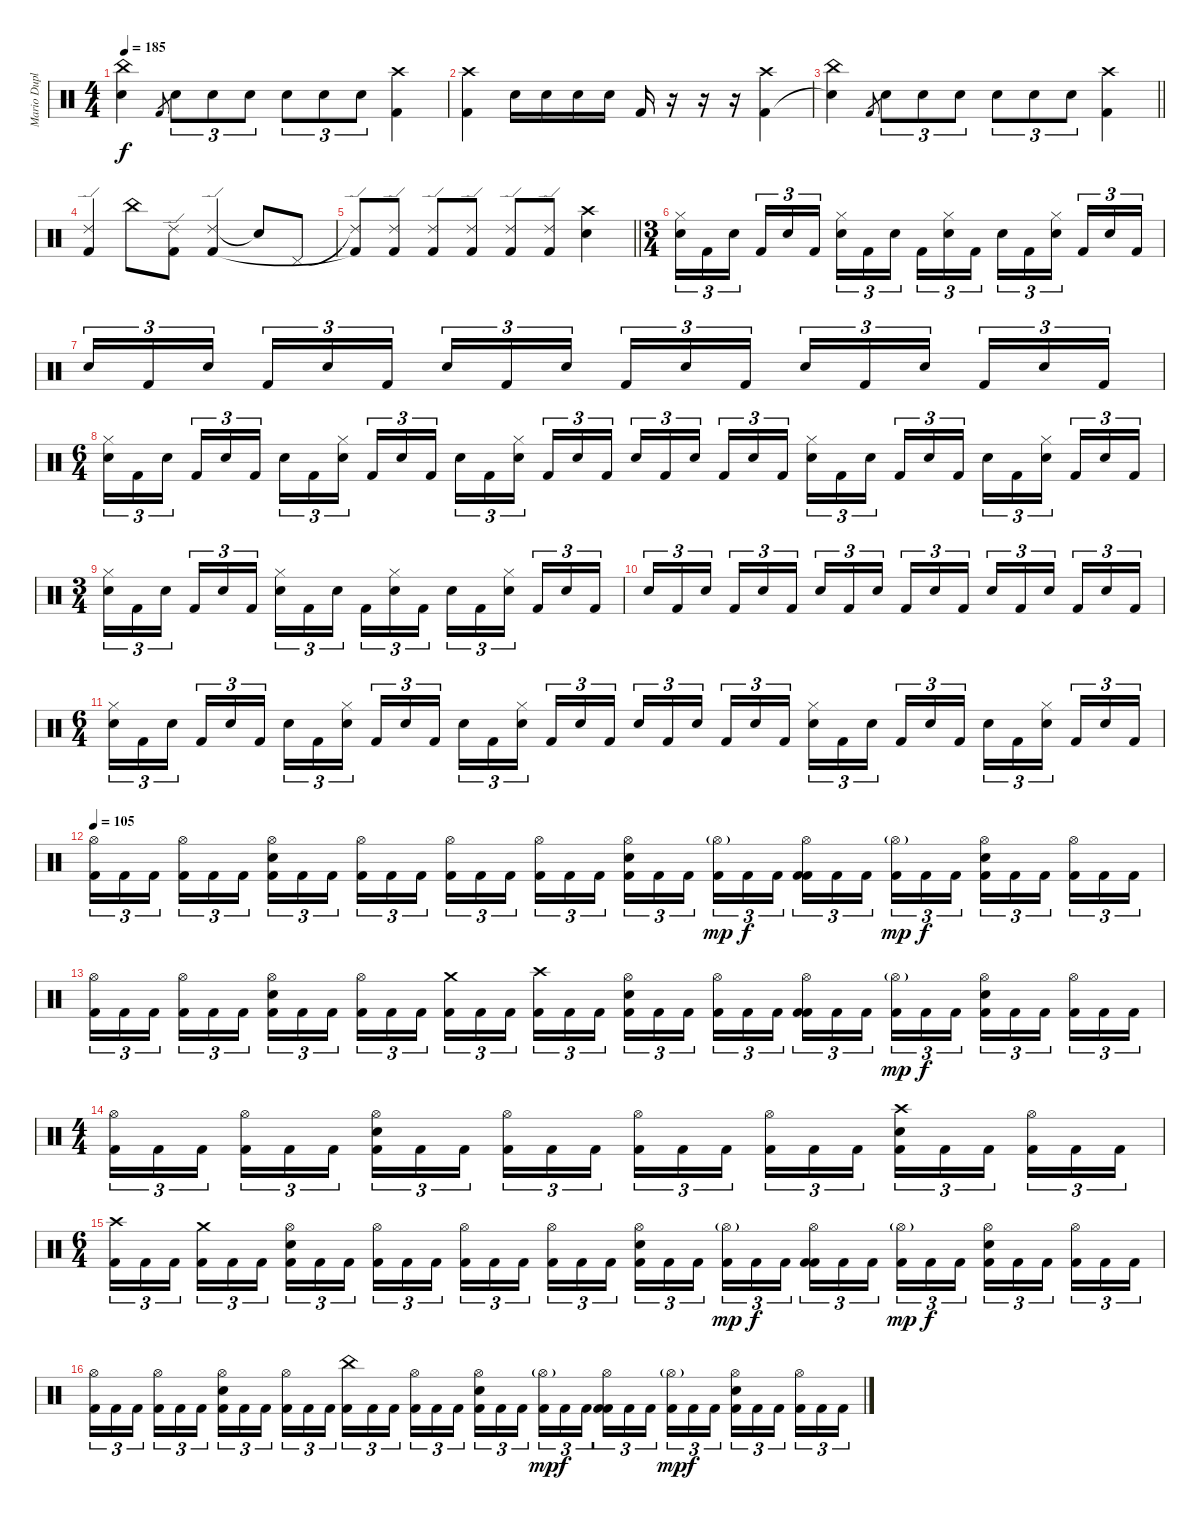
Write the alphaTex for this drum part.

\track ("Mario Duplantier" "Mario Dupl") {instrument percussion}
\staff {score}
\articulation defaults
\ts (4 4)
\tempo 185
\clef neutral
\ks c
("China (hit)" "Snare (hit)"{t}).4{dy f} "Kick (hit) 2".8{gr} "Electric Snare (hit)".8{tu (3 2)} "Electric Snare (hit)".8{tu (3 2)} "Electric Snare (hit)".8{tu (3 2)} "Electric Snare (hit)".8{tu (3 2)} "Electric Snare (hit)".8{tu (3 2)} "Electric Snare (hit)".8{tu (3 2)} ("Crash high (hit)" "Kick (hit) 2").4 |
("Crash high (hit)" "Kick (hit) 2").4 "Electric Snare (hit)".16 "Electric Snare (hit)".16 "Electric Snare (hit)".16 "Electric Snare (hit)".16 "Kick (hit) 2".16 r.16 r.16 r.16 ("Crash high (hit)" "Kick (hit) 2").4 |
\barLineRight lightlight
("China (hit)" "Snare (hit)"{t}).4 "Kick (hit) 2".8{gr} "Electric Snare (hit)".8{tu (3 2)} "Electric Snare (hit)".8{tu (3 2)} "Electric Snare (hit)".8{tu (3 2)} "Electric Snare (hit)".8{tu (3 2)} "Electric Snare (hit)".8{tu (3 2)} "Electric Snare (hit)".8{tu (3 2)} ("Crash high (hit)" "Kick (hit) 2").4 |
("Ride (edge) 2" "Kick (hit) 2").4 "China (hit)".8 ("Ride (edge) 2" "Kick (hit) 2").8 ("Ride (edge) 2" "Kick (hit) 2").4 "Snare (hit)"{t}.8 "Pedal Hi-Hat (hit)".8 |
\barLineRight lightlight
("Ride (edge) 2"{t} "Kick (hit) 2"{t}).8 ("Ride (edge) 2" "Kick (hit) 2").8 ("Ride (edge) 2" "Kick (hit) 2").8 ("Ride (edge) 2" "Kick (hit) 2").8 ("Ride (edge) 2" "Kick (hit) 2").8 ("Ride (edge) 2" "Kick (hit) 2").8 ("Crash high (hit)" "Electric Snare (hit)").4 |
\ts (3 4)
("Hi-Hat (closed)" "Electric Snare (hit)").16{tu (3 2)} "Kick (hit) 2".16{tu (3 2)} "Electric Snare (hit)".16{tu (3 2) beam splitsecondary} "Kick (hit) 2".16{tu (3 2)} "Electric Snare (hit)".16{tu (3 2)} "Kick (hit) 2".16{tu (3 2)} ("Hi-Hat (closed)" "Electric Snare (hit)").16{tu (3 2)} "Kick (hit) 2".16{tu (3 2)} "Electric Snare (hit)".16{tu (3 2) beam splitsecondary} "Kick (hit) 2".16{tu (3 2)} ("Hi-Hat (closed)" "Electric Snare (hit)").16{tu (3 2)} "Kick (hit) 2".16{tu (3 2)} "Electric Snare (hit)".16{tu (3 2)} "Kick (hit) 2".16{tu (3 2)} ("Hi-Hat (closed)" "Electric Snare (hit)").16{tu (3 2) beam splitsecondary} "Kick (hit) 2".16{tu (3 2)} "Electric Snare (hit)".16{tu (3 2)} "Kick (hit) 2".16{tu (3 2)} |
"Electric Snare (hit)".16{tu (3 2)} "Kick (hit) 2".16{tu (3 2)} "Electric Snare (hit)".16{tu (3 2) beam splitsecondary} "Kick (hit) 2".16{tu (3 2)} "Electric Snare (hit)".16{tu (3 2)} "Kick (hit) 2".16{tu (3 2)} "Electric Snare (hit)".16{tu (3 2)} "Kick (hit) 2".16{tu (3 2)} "Electric Snare (hit)".16{tu (3 2) beam splitsecondary} "Kick (hit) 2".16{tu (3 2)} "Electric Snare (hit)".16{tu (3 2)} "Kick (hit) 2".16{tu (3 2)} "Electric Snare (hit)".16{tu (3 2)} "Kick (hit) 2".16{tu (3 2)} "Electric Snare (hit)".16{tu (3 2) beam splitsecondary} "Kick (hit) 2".16{tu (3 2)} "Electric Snare (hit)".16{tu (3 2)} "Kick (hit) 2".16{tu (3 2)} |
\ts (6 4)
("Hi-Hat (closed)" "Electric Snare (hit)").16{tu (3 2)} "Kick (hit) 2".16{tu (3 2)} "Electric Snare (hit)".16{tu (3 2) beam splitsecondary} "Kick (hit) 2".16{tu (3 2)} "Electric Snare (hit)".16{tu (3 2)} "Kick (hit) 2".16{tu (3 2) beam splitsecondary} "Electric Snare (hit)".16{tu (3 2)} "Kick (hit) 2".16{tu (3 2)} ("Hi-Hat (closed)" "Electric Snare (hit)").16{tu (3 2) beam splitsecondary} "Kick (hit) 2".16{tu (3 2)} "Electric Snare (hit)".16{tu (3 2)} "Kick (hit) 2".16{tu (3 2) beam splitsecondary} "Electric Snare (hit)".16{tu (3 2)} "Kick (hit) 2".16{tu (3 2)} ("Hi-Hat (closed)" "Electric Snare (hit)").16{tu (3 2) beam splitsecondary} "Kick (hit) 2".16{tu (3 2)} "Electric Snare (hit)".16{tu (3 2)} "Kick (hit) 2".16{tu (3 2)} "Electric Snare (hit)".16{tu (3 2)} "Kick (hit) 2".16{tu (3 2)} "Electric Snare (hit)".16{tu (3 2) beam splitsecondary} "Kick (hit) 2".16{tu (3 2)} "Electric Snare (hit)".16{tu (3 2)} "Kick (hit) 2".16{tu (3 2) beam splitsecondary} ("Hi-Hat (closed)" "Electric Snare (hit)").16{tu (3 2)} "Kick (hit) 2".16{tu (3 2)} "Electric Snare (hit)".16{tu (3 2) beam splitsecondary} "Kick (hit) 2".16{tu (3 2)} "Electric Snare (hit)".16{tu (3 2)} "Kick (hit) 2".16{tu (3 2) beam splitsecondary} "Electric Snare (hit)".16{tu (3 2)} "Kick (hit) 2".16{tu (3 2)} ("Hi-Hat (closed)" "Electric Snare (hit)").16{tu (3 2) beam splitsecondary} "Kick (hit) 2".16{tu (3 2)} "Electric Snare (hit)".16{tu (3 2)} "Kick (hit) 2".16{tu (3 2)} |
\ts (3 4)
("Hi-Hat (closed)" "Electric Snare (hit)").16{tu (3 2)} "Kick (hit) 2".16{tu (3 2)} "Electric Snare (hit)".16{tu (3 2) beam splitsecondary} "Kick (hit) 2".16{tu (3 2)} "Electric Snare (hit)".16{tu (3 2)} "Kick (hit) 2".16{tu (3 2)} ("Hi-Hat (closed)" "Electric Snare (hit)").16{tu (3 2)} "Kick (hit) 2".16{tu (3 2)} "Electric Snare (hit)".16{tu (3 2) beam splitsecondary} "Kick (hit) 2".16{tu (3 2)} ("Hi-Hat (closed)" "Electric Snare (hit)").16{tu (3 2)} "Kick (hit) 2".16{tu (3 2)} "Electric Snare (hit)".16{tu (3 2)} "Kick (hit) 2".16{tu (3 2)} ("Hi-Hat (closed)" "Electric Snare (hit)").16{tu (3 2) beam splitsecondary} "Kick (hit) 2".16{tu (3 2)} "Electric Snare (hit)".16{tu (3 2)} "Kick (hit) 2".16{tu (3 2)} |
"Electric Snare (hit)".16{tu (3 2)} "Kick (hit) 2".16{tu (3 2)} "Electric Snare (hit)".16{tu (3 2) beam splitsecondary} "Kick (hit) 2".16{tu (3 2)} "Electric Snare (hit)".16{tu (3 2)} "Kick (hit) 2".16{tu (3 2)} "Electric Snare (hit)".16{tu (3 2)} "Kick (hit) 2".16{tu (3 2)} "Electric Snare (hit)".16{tu (3 2) beam splitsecondary} "Kick (hit) 2".16{tu (3 2)} "Electric Snare (hit)".16{tu (3 2)} "Kick (hit) 2".16{tu (3 2)} "Electric Snare (hit)".16{tu (3 2)} "Kick (hit) 2".16{tu (3 2)} "Electric Snare (hit)".16{tu (3 2) beam splitsecondary} "Kick (hit) 2".16{tu (3 2)} "Electric Snare (hit)".16{tu (3 2)} "Kick (hit) 2".16{tu (3 2)} |
\ts (6 4)
("Hi-Hat (closed)" "Electric Snare (hit)").16{tu (3 2)} "Kick (hit) 2".16{tu (3 2)} "Electric Snare (hit)".16{tu (3 2) beam splitsecondary} "Kick (hit) 2".16{tu (3 2)} "Electric Snare (hit)".16{tu (3 2)} "Kick (hit) 2".16{tu (3 2) beam splitsecondary} "Electric Snare (hit)".16{tu (3 2)} "Kick (hit) 2".16{tu (3 2)} ("Hi-Hat (closed)" "Electric Snare (hit)").16{tu (3 2) beam splitsecondary} "Kick (hit) 2".16{tu (3 2)} "Electric Snare (hit)".16{tu (3 2)} "Kick (hit) 2".16{tu (3 2) beam splitsecondary} "Electric Snare (hit)".16{tu (3 2)} "Kick (hit) 2".16{tu (3 2)} ("Hi-Hat (closed)" "Electric Snare (hit)").16{tu (3 2) beam splitsecondary} "Kick (hit) 2".16{tu (3 2)} "Electric Snare (hit)".16{tu (3 2)} "Kick (hit) 2".16{tu (3 2)} "Electric Snare (hit)".16{tu (3 2)} "Kick (hit) 2".16{tu (3 2)} "Electric Snare (hit)".16{tu (3 2) beam splitsecondary} "Kick (hit) 2".16{tu (3 2)} "Electric Snare (hit)".16{tu (3 2)} "Kick (hit) 2".16{tu (3 2) beam splitsecondary} ("Hi-Hat (closed)" "Electric Snare (hit)").16{tu (3 2)} "Kick (hit) 2".16{tu (3 2)} "Electric Snare (hit)".16{tu (3 2) beam splitsecondary} "Kick (hit) 2".16{tu (3 2)} "Electric Snare (hit)".16{tu (3 2)} "Kick (hit) 2".16{tu (3 2) beam splitsecondary} "Electric Snare (hit)".16{tu (3 2)} "Kick (hit) 2".16{tu (3 2)} ("Hi-Hat (closed)" "Electric Snare (hit)").16{tu (3 2) beam splitsecondary} "Kick (hit) 2".16{tu (3 2)} "Electric Snare (hit)".16{tu (3 2)} "Kick (hit) 2".16{tu (3 2)} |
\tempo 105
("Hi-Hat (open)" "Kick (hit) 2").16{tu (3 2)} "Kick (hit) 2".16{tu (3 2)} "Kick (hit) 2".16{tu (3 2) beam splitsecondary} ("Hi-Hat (open)" "Kick (hit) 2").16{tu (3 2)} "Kick (hit) 2".16{tu (3 2)} "Kick (hit) 2".16{tu (3 2) beam splitsecondary} ("Hi-Hat (open)" "Electric Snare (hit)" "Kick (hit) 2").16{tu (3 2)} "Kick (hit) 2".16{tu (3 2)} "Kick (hit) 2".16{tu (3 2) beam splitsecondary} ("Hi-Hat (open)" "Kick (hit) 2").16{tu (3 2)} "Kick (hit) 2".16{tu (3 2)} "Kick (hit) 2".16{tu (3 2) beam splitsecondary} ("Hi-Hat (open)" "Kick (hit) 2").16{tu (3 2)} "Kick (hit) 2".16{tu (3 2)} "Kick (hit) 2".16{tu (3 2) beam splitsecondary} ("Hi-Hat (open)" "Kick (hit) 2").16{tu (3 2)} "Kick (hit) 2".16{tu (3 2)} "Kick (hit) 2".16{tu (3 2)} ("Hi-Hat (open)" "Electric Snare (hit)" "Kick (hit) 2").16{tu (3 2)} "Kick (hit) 2".16{tu (3 2)} "Kick (hit) 2".16{tu (3 2) beam splitsecondary} ("Hi-Hat (open)"{g} "Kick (hit) 2").16{tu (3 2) dy mp} "Kick (hit) 2".16{tu (3 2) dy f} "Kick (hit) 2".16{tu (3 2) beam splitsecondary} ("Hi-Hat (open)" "Kick (hit) 2" "Kick (hit) 2").16{tu (3 2)} "Kick (hit) 2".16{tu (3 2)} "Kick (hit) 2".16{tu (3 2) beam splitsecondary} ("Hi-Hat (open)"{g} "Kick (hit) 2").16{tu (3 2) dy mp} "Kick (hit) 2".16{tu (3 2) dy f} "Kick (hit) 2".16{tu (3 2) beam splitsecondary} ("Hi-Hat (open)" "Electric Snare (hit)" "Kick (hit) 2").16{tu (3 2)} "Kick (hit) 2".16{tu (3 2)} "Kick (hit) 2".16{tu (3 2) beam splitsecondary} ("Hi-Hat (open)" "Kick (hit) 2").16{tu (3 2)} "Kick (hit) 2".16{tu (3 2)} "Kick (hit) 2".16{tu (3 2)} |
("Hi-Hat (open)" "Kick (hit) 2").16{tu (3 2)} "Kick (hit) 2".16{tu (3 2)} "Kick (hit) 2".16{tu (3 2) beam splitsecondary} ("Hi-Hat (open)" "Kick (hit) 2").16{tu (3 2)} "Kick (hit) 2".16{tu (3 2)} "Kick (hit) 2".16{tu (3 2) beam splitsecondary} ("Hi-Hat (open)" "Electric Snare (hit)" "Kick (hit) 2").16{tu (3 2)} "Kick (hit) 2".16{tu (3 2)} "Kick (hit) 2".16{tu (3 2) beam splitsecondary} ("Hi-Hat (open)" "Kick (hit) 2").16{tu (3 2)} "Kick (hit) 2".16{tu (3 2)} "Kick (hit) 2".16{tu (3 2) beam splitsecondary} ("Crash medium (hit)" "Kick (hit) 2").16{tu (3 2)} "Kick (hit) 2".16{tu (3 2)} "Kick (hit) 2".16{tu (3 2) beam splitsecondary} ("Crash high (hit)" "Kick (hit) 2").16{tu (3 2)} "Kick (hit) 2".16{tu (3 2)} "Kick (hit) 2".16{tu (3 2)} ("Hi-Hat (open)" "Electric Snare (hit)" "Kick (hit) 2").16{tu (3 2)} "Kick (hit) 2".16{tu (3 2)} "Kick (hit) 2".16{tu (3 2) beam splitsecondary} ("Hi-Hat (open)" "Kick (hit) 2").16{tu (3 2)} "Kick (hit) 2".16{tu (3 2)} "Kick (hit) 2".16{tu (3 2) beam splitsecondary} ("Hi-Hat (open)" "Kick (hit) 2" "Kick (hit) 2").16{tu (3 2)} "Kick (hit) 2".16{tu (3 2)} "Kick (hit) 2".16{tu (3 2) beam splitsecondary} ("Hi-Hat (open)"{g} "Kick (hit) 2").16{tu (3 2) dy mp} "Kick (hit) 2".16{tu (3 2) dy f} "Kick (hit) 2".16{tu (3 2) beam splitsecondary} ("Hi-Hat (open)" "Electric Snare (hit)" "Kick (hit) 2").16{tu (3 2)} "Kick (hit) 2".16{tu (3 2)} "Kick (hit) 2".16{tu (3 2) beam splitsecondary} ("Hi-Hat (open)" "Kick (hit) 2").16{tu (3 2)} "Kick (hit) 2".16{tu (3 2)} "Kick (hit) 2".16{tu (3 2)} |
\ts (4 4)
("Hi-Hat (open)" "Kick (hit) 2").16{tu (3 2)} "Kick (hit) 2".16{tu (3 2)} "Kick (hit) 2".16{tu (3 2) beam splitsecondary} ("Hi-Hat (open)" "Kick (hit) 2").16{tu (3 2)} "Kick (hit) 2".16{tu (3 2)} "Kick (hit) 2".16{tu (3 2)} ("Hi-Hat (open)" "Electric Snare (hit)" "Kick (hit) 2").16{tu (3 2)} "Kick (hit) 2".16{tu (3 2)} "Kick (hit) 2".16{tu (3 2) beam splitsecondary} ("Hi-Hat (open)" "Kick (hit) 2").16{tu (3 2)} "Kick (hit) 2".16{tu (3 2)} "Kick (hit) 2".16{tu (3 2)} ("Hi-Hat (open)" "Kick (hit) 2").16{tu (3 2)} "Kick (hit) 2".16{tu (3 2)} "Kick (hit) 2".16{tu (3 2) beam splitsecondary} ("Hi-Hat (open)" "Kick (hit) 2").16{tu (3 2)} "Kick (hit) 2".16{tu (3 2)} "Kick (hit) 2".16{tu (3 2)} ("Crash high (hit)" "Electric Snare (hit)" "Kick (hit) 2").16{tu (3 2)} "Kick (hit) 2".16{tu (3 2)} "Kick (hit) 2".16{tu (3 2) beam splitsecondary} ("Hi-Hat (open)" "Kick (hit) 2").16{tu (3 2)} "Kick (hit) 2".16{tu (3 2)} "Kick (hit) 2".16{tu (3 2)} |
\ts (6 4)
("Crash high (hit)" "Kick (hit) 2").16{tu (3 2)} "Kick (hit) 2".16{tu (3 2)} "Kick (hit) 2".16{tu (3 2) beam splitsecondary} ("Crash medium (hit)" "Kick (hit) 2").16{tu (3 2)} "Kick (hit) 2".16{tu (3 2)} "Kick (hit) 2".16{tu (3 2) beam splitsecondary} ("Hi-Hat (open)" "Electric Snare (hit)" "Kick (hit) 2").16{tu (3 2)} "Kick (hit) 2".16{tu (3 2)} "Kick (hit) 2".16{tu (3 2) beam splitsecondary} ("Hi-Hat (open)" "Kick (hit) 2").16{tu (3 2)} "Kick (hit) 2".16{tu (3 2)} "Kick (hit) 2".16{tu (3 2) beam splitsecondary} ("Hi-Hat (open)" "Kick (hit) 2").16{tu (3 2)} "Kick (hit) 2".16{tu (3 2)} "Kick (hit) 2".16{tu (3 2) beam splitsecondary} ("Hi-Hat (open)" "Kick (hit) 2").16{tu (3 2)} "Kick (hit) 2".16{tu (3 2)} "Kick (hit) 2".16{tu (3 2)} ("Hi-Hat (open)" "Electric Snare (hit)" "Kick (hit) 2").16{tu (3 2)} "Kick (hit) 2".16{tu (3 2)} "Kick (hit) 2".16{tu (3 2) beam splitsecondary} ("Hi-Hat (open)"{g} "Kick (hit) 2").16{tu (3 2) dy mp} "Kick (hit) 2".16{tu (3 2) dy f} "Kick (hit) 2".16{tu (3 2) beam splitsecondary} ("Hi-Hat (open)" "Kick (hit) 2" "Kick (hit) 2").16{tu (3 2)} "Kick (hit) 2".16{tu (3 2)} "Kick (hit) 2".16{tu (3 2) beam splitsecondary} ("Hi-Hat (open)"{g} "Kick (hit) 2").16{tu (3 2) dy mp} "Kick (hit) 2".16{tu (3 2) dy f} "Kick (hit) 2".16{tu (3 2) beam splitsecondary} ("Hi-Hat (open)" "Electric Snare (hit)" "Kick (hit) 2").16{tu (3 2)} "Kick (hit) 2".16{tu (3 2)} "Kick (hit) 2".16{tu (3 2) beam splitsecondary} ("Hi-Hat (open)" "Kick (hit) 2").16{tu (3 2)} "Kick (hit) 2".16{tu (3 2)} "Kick (hit) 2".16{tu (3 2)} |
("Hi-Hat (open)" "Kick (hit) 2").16{tu (3 2)} "Kick (hit) 2".16{tu (3 2)} "Kick (hit) 2".16{tu (3 2) beam splitsecondary} ("Hi-Hat (open)" "Kick (hit) 2").16{tu (3 2)} "Kick (hit) 2".16{tu (3 2)} "Kick (hit) 2".16{tu (3 2) beam splitsecondary} ("Hi-Hat (open)" "Electric Snare (hit)" "Kick (hit) 2").16{tu (3 2)} "Kick (hit) 2".16{tu (3 2)} "Kick (hit) 2".16{tu (3 2) beam splitsecondary} ("Hi-Hat (open)" "Kick (hit) 2").16{tu (3 2)} "Kick (hit) 2".16{tu (3 2)} "Kick (hit) 2".16{tu (3 2) beam splitsecondary} ("China (hit)" "Kick (hit) 2").16{tu (3 2)} "Kick (hit) 2".16{tu (3 2)} "Kick (hit) 2".16{tu (3 2) beam splitsecondary} ("Hi-Hat (open)" "Kick (hit) 2").16{tu (3 2)} "Kick (hit) 2".16{tu (3 2)} "Kick (hit) 2".16{tu (3 2)} ("Hi-Hat (open)" "Electric Snare (hit)" "Kick (hit) 2").16{tu (3 2)} "Kick (hit) 2".16{tu (3 2)} "Kick (hit) 2".16{tu (3 2) beam splitsecondary} ("Hi-Hat (open)"{g} "Kick (hit) 2").16{tu (3 2) dy mp} "Kick (hit) 2".16{tu (3 2) dy f} "Kick (hit) 2".16{tu (3 2) beam splitsecondary} ("Hi-Hat (open)" "Kick (hit) 2" "Kick (hit) 2").16{tu (3 2)} "Kick (hit) 2".16{tu (3 2)} "Kick (hit) 2".16{tu (3 2) beam splitsecondary} ("Hi-Hat (open)"{g} "Kick (hit) 2").16{tu (3 2) dy mp} "Kick (hit) 2".16{tu (3 2) dy f} "Kick (hit) 2".16{tu (3 2) beam splitsecondary} ("Hi-Hat (open)" "Electric Snare (hit)" "Kick (hit) 2").16{tu (3 2)} "Kick (hit) 2".16{tu (3 2)} "Kick (hit) 2".16{tu (3 2) beam splitsecondary} ("Hi-Hat (open)" "Kick (hit) 2").16{tu (3 2)} "Kick (hit) 2".16{tu (3 2)} "Kick (hit) 2".16{tu (3 2)}
